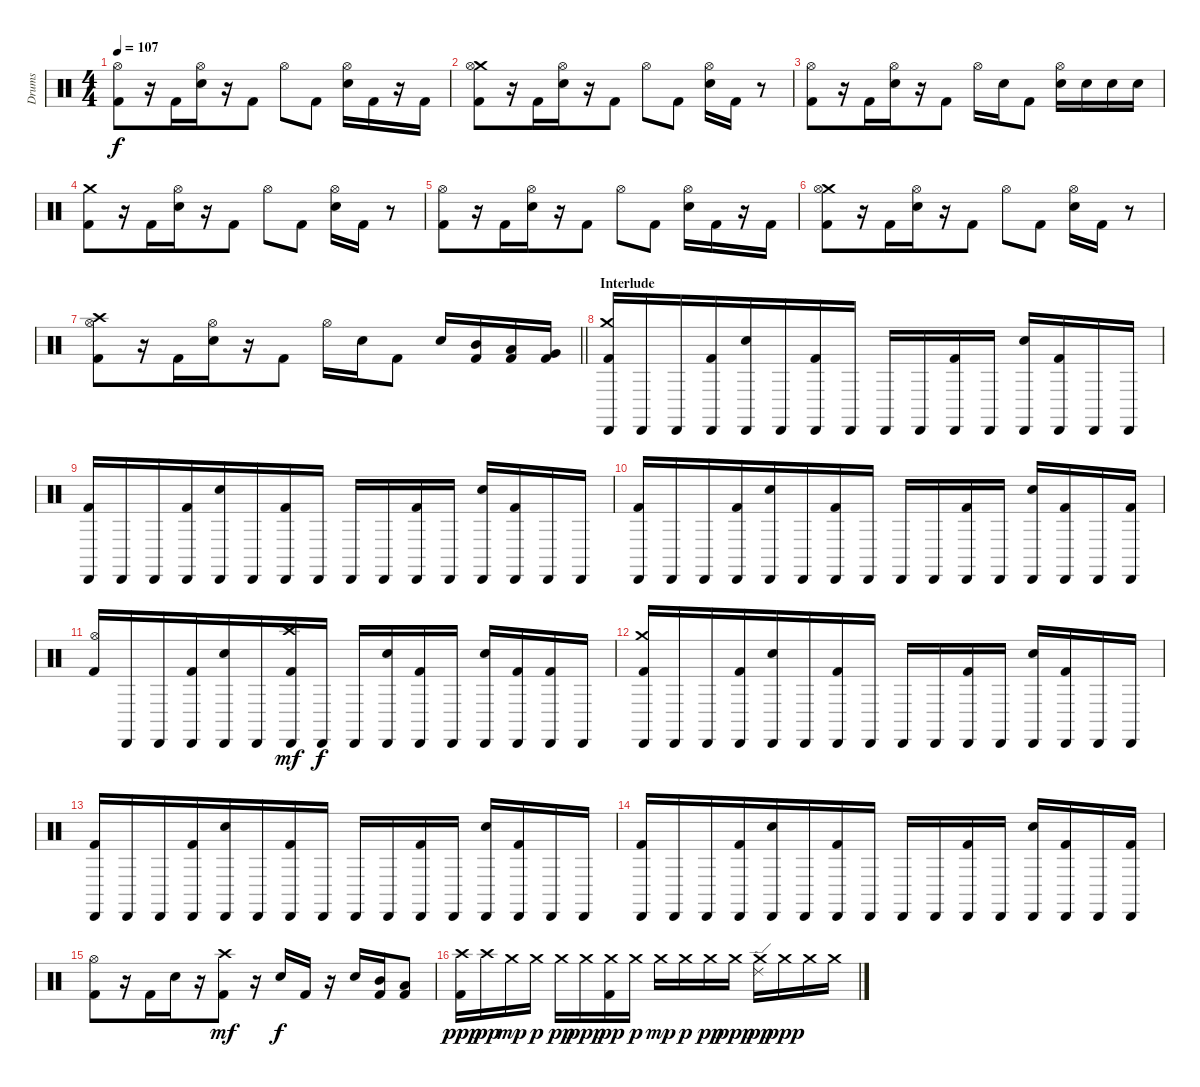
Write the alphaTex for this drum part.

\track ("Drums" "Drums") {instrument percussion}
\staff {score}
\articulation defaults
\ts (4 4)
\tempo 107
\clef neutral
\ks c
("Hi-Hat (open)" "Kick (hit) 2").8{dy f} r.16 "Kick (hit) 2".16{beam merge} ("Hi-Hat (open)" "Electric Snare (hit)").16 r.16 "Kick (hit) 2".8 "Hi-Hat (open)".8 "Kick (hit) 2".8 ("Hi-Hat (open)" "Electric Snare (hit)").16 "Kick (hit) 2".16 r.16 "Kick (hit) 2".16 |
("Crash medium (hit)" "Hi-Hat (open)" "Kick (hit) 2").8 r.16 "Kick (hit) 2".16{beam merge} ("Hi-Hat (open)" "Electric Snare (hit)").16 r.16 "Kick (hit) 2".8 "Hi-Hat (open)".8 "Kick (hit) 2".8 ("Hi-Hat (open)" "Electric Snare (hit)").16 "Kick (hit) 2".16 r.8 |
("Hi-Hat (open)" "Kick (hit) 2").8 r.16 "Kick (hit) 2".16{beam merge} ("Hi-Hat (open)" "Electric Snare (hit)").16 r.16 "Kick (hit) 2".8 "Hi-Hat (open)".16 "Electric Snare (hit)".16 "Kick (hit) 2".8 ("Hi-Hat (open)" "Electric Snare (hit)").16 "Electric Snare (hit)".16 "Electric Snare (hit)".16 "Electric Snare (hit)".16 |
("Crash medium (hit)" "Kick (hit) 2").8 r.16 "Kick (hit) 2".16{beam merge} ("Hi-Hat (open)" "Electric Snare (hit)").16 r.16 "Kick (hit) 2".8 "Hi-Hat (open)".8 "Kick (hit) 2".8 ("Hi-Hat (open)" "Electric Snare (hit)").16 "Kick (hit) 2".16 r.8 |
("Hi-Hat (open)" "Kick (hit) 2").8 r.16 "Kick (hit) 2".16{beam merge} ("Hi-Hat (open)" "Electric Snare (hit)").16 r.16 "Kick (hit) 2".8 "Hi-Hat (open)".8 "Kick (hit) 2".8 ("Hi-Hat (open)" "Electric Snare (hit)").16 "Kick (hit) 2".16 r.16 "Kick (hit) 2".16 |
("Crash medium (hit)" "Hi-Hat (open)" "Kick (hit) 2").8 r.16 "Kick (hit) 2".16{beam merge} ("Hi-Hat (open)" "Electric Snare (hit)").16 r.16 "Kick (hit) 2".8 "Hi-Hat (open)".8 "Kick (hit) 2".8 ("Hi-Hat (open)" "Electric Snare (hit)").16 "Kick (hit) 2".16 r.8 |
\barLineRight lightlight
("Crash high (hit)" "Hi-Hat (open)" "Kick (hit) 2").8 r.16 "Kick (hit) 2".16{beam merge} ("Hi-Hat (open)" "Electric Snare (hit)").16 r.16 "Kick (hit) 2".8 "Hi-Hat (open)".16 "Electric Snare (hit)".16 "Kick (hit) 2".8 "Electric Snare (hit)".16 ("Mid Tom (hit)" "Kick (hit) 2").16 ("Low Tom (hit)" "Kick (hit) 2").16 ("Very Low Tom (hit)" "Kick (hit) 2").16 |
\section ("" "Interlude")
("Crash medium (hit)" "Cabasa (hit)" "Kick (hit) 2").16 "Cabasa (hit)".16 "Cabasa (hit)".16 ("Cabasa (hit)" "Kick (hit) 2").16{beam merge} ("Cabasa (hit)" "Electric Snare (hit)").16 "Cabasa (hit)".16 ("Cabasa (hit)" "Kick (hit) 2").16 "Cabasa (hit)".16 "Cabasa (hit)".16 "Cabasa (hit)".16 ("Cabasa (hit)" "Kick (hit) 2").16 "Cabasa (hit)".16 ("Cabasa (hit)" "Electric Snare (hit)").16 ("Cabasa (hit)" "Kick (hit) 2").16 "Cabasa (hit)".16 "Cabasa (hit)".16 |
("Cabasa (hit)" "Kick (hit) 2").16 "Cabasa (hit)".16 "Cabasa (hit)".16 ("Cabasa (hit)" "Kick (hit) 2").16{beam merge} ("Cabasa (hit)" "Electric Snare (hit)").16 "Cabasa (hit)".16 ("Cabasa (hit)" "Kick (hit) 2").16 "Cabasa (hit)".16 "Cabasa (hit)".16 "Cabasa (hit)".16 ("Cabasa (hit)" "Kick (hit) 2").16 "Cabasa (hit)".16 ("Cabasa (hit)" "Electric Snare (hit)").16 ("Cabasa (hit)" "Kick (hit) 2").16 "Cabasa (hit)".16 "Cabasa (hit)".16 |
("Cabasa (hit)" "Kick (hit) 2").16 "Cabasa (hit)".16 "Cabasa (hit)".16 ("Cabasa (hit)" "Kick (hit) 2").16{beam merge} ("Cabasa (hit)" "Electric Snare (hit)").16 "Cabasa (hit)".16 ("Cabasa (hit)" "Kick (hit) 2").16 "Cabasa (hit)".16 "Cabasa (hit)".16 "Cabasa (hit)".16 ("Cabasa (hit)" "Kick (hit) 2").16 "Cabasa (hit)".16 ("Cabasa (hit)" "Electric Snare (hit)").16 ("Cabasa (hit)" "Kick (hit) 2").16 "Cabasa (hit)".16 ("Cabasa (hit)" "Kick (hit) 2").16 |
("Hi-Hat (open)" "Kick (hit) 2").16 "Cabasa (hit)".16 "Cabasa (hit)".16 ("Cabasa (hit)" "Kick (hit) 2").16{beam merge} ("Cabasa (hit)" "Electric Snare (hit)").16 "Cabasa (hit)".16 ("Crash high (hit)" "Cabasa (hit)" "Kick (hit) 2").16{dy mf} "Cabasa (hit)".16{dy f} "Cabasa (hit)".16 ("Cabasa (hit)" "Electric Snare (hit)").16 ("Cabasa (hit)" "Kick (hit) 2").16 "Cabasa (hit)".16 ("Cabasa (hit)" "Electric Snare (hit)").16 ("Cabasa (hit)" "Kick (hit) 2").16 ("Cabasa (hit)" "Kick (hit) 2").16 "Cabasa (hit)".16 |
("Crash medium (hit)" "Cabasa (hit)" "Kick (hit) 2").16 "Cabasa (hit)".16 "Cabasa (hit)".16 ("Cabasa (hit)" "Kick (hit) 2").16{beam merge} ("Cabasa (hit)" "Electric Snare (hit)").16 "Cabasa (hit)".16 ("Cabasa (hit)" "Kick (hit) 2").16 "Cabasa (hit)".16 "Cabasa (hit)".16 "Cabasa (hit)".16 ("Cabasa (hit)" "Kick (hit) 2").16 "Cabasa (hit)".16 ("Cabasa (hit)" "Electric Snare (hit)").16 ("Cabasa (hit)" "Kick (hit) 2").16 "Cabasa (hit)".16 "Cabasa (hit)".16 |
("Cabasa (hit)" "Kick (hit) 2").16 "Cabasa (hit)".16 "Cabasa (hit)".16 ("Cabasa (hit)" "Kick (hit) 2").16{beam merge} ("Cabasa (hit)" "Electric Snare (hit)").16 "Cabasa (hit)".16 ("Cabasa (hit)" "Kick (hit) 2").16 "Cabasa (hit)".16 "Cabasa (hit)".16 "Cabasa (hit)".16 ("Cabasa (hit)" "Kick (hit) 2").16 "Cabasa (hit)".16 ("Cabasa (hit)" "Electric Snare (hit)").16 ("Cabasa (hit)" "Kick (hit) 2").16 "Cabasa (hit)".16 "Cabasa (hit)".16 |
("Cabasa (hit)" "Kick (hit) 2").16 "Cabasa (hit)".16 "Cabasa (hit)".16 ("Cabasa (hit)" "Kick (hit) 2").16{beam merge} ("Cabasa (hit)" "Electric Snare (hit)").16 "Cabasa (hit)".16 ("Cabasa (hit)" "Kick (hit) 2").16 "Cabasa (hit)".16 "Cabasa (hit)".16 "Cabasa (hit)".16 ("Cabasa (hit)" "Kick (hit) 2").16 "Cabasa (hit)".16 ("Cabasa (hit)" "Electric Snare (hit)").16 ("Cabasa (hit)" "Kick (hit) 2").16 "Cabasa (hit)".16 ("Cabasa (hit)" "Kick (hit) 2").16 |
("Hi-Hat (open)" "Kick (hit) 2").8 r.16 "Kick (hit) 2".16{beam merge} "Electric Snare (hit)".16 r.16 ("Crash high (hit)" "Kick (hit) 2").8{dy mf} r.16 "Electric Snare (hit)".16{dy f} "Kick (hit) 2".16 r.16 "Electric Snare (hit)".16 ("Mid Tom (hit)" "Kick (hit) 2").16 ("Low Tom (hit)" "Kick (hit) 2").8 |
("Crash high (hit)" "Kick (hit) 2").16{dy ppp} "Crash high (hit)".16{dy pp} "Crash medium (hit)".16{dy mp} "Crash medium (hit)".16{dy p} "Crash medium (hit)".16{dy pp} "Crash medium (hit)".16{dy ppp} ("Crash medium (hit)" "Kick (hit) 2").16{dy pp} "Crash medium (hit)".16{dy p} "Crash medium (hit)".16{dy mp} "Crash medium (hit)".16{dy p} "Crash medium (hit)".16{dy pp} "Crash medium (hit)".16{dy ppp} ("Crash medium (hit)" "Ride (edge) 2").16{dy pp} "Crash medium (hit)".16{dy ppp} "Crash medium (hit)".16 "Crash medium (hit)".16
